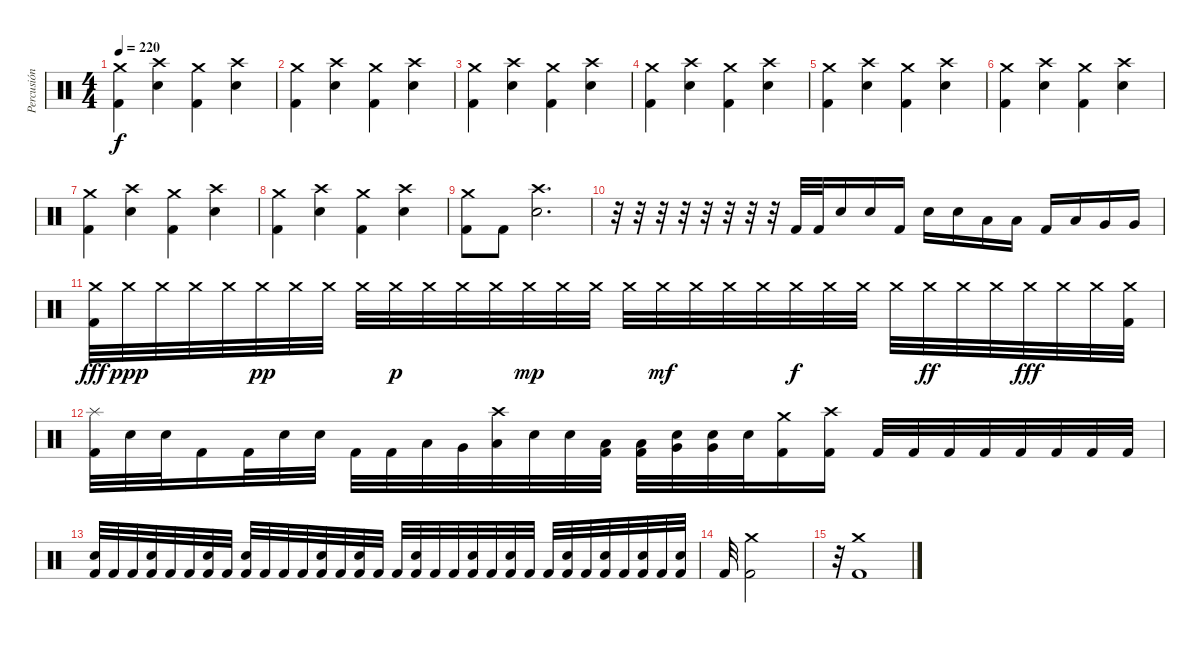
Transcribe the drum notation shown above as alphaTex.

\track ("Percusión" "Percusión") {instrument percussion}
\staff {score}
\articulation defaults
\ts (4 4)
\tempo 220
\clef neutral
\ks c
("Crash medium (hit)" "Kick (hit) 2").4{dy f} ("Crash high (hit)" "Snare (hit) 2").4 ("Crash medium (hit)" "Kick (hit) 2").4 ("Crash high (hit)" "Snare (hit) 2").4 |
("Crash medium (hit)" "Kick (hit) 2").4 ("Crash high (hit)" "Snare (hit) 2").4 ("Crash medium (hit)" "Kick (hit) 2").4 ("Crash high (hit)" "Snare (hit) 2").4 |
("Crash medium (hit)" "Kick (hit) 2").4 ("Crash high (hit)" "Snare (hit) 2").4 ("Crash medium (hit)" "Kick (hit) 2").4 ("Crash high (hit)" "Snare (hit) 2").4 |
("Crash medium (hit)" "Kick (hit) 2").4 ("Crash high (hit)" "Snare (hit) 2").4 ("Crash medium (hit)" "Kick (hit) 2").4 ("Crash high (hit)" "Snare (hit) 2").4 |
("Crash medium (hit)" "Kick (hit) 2").4 ("Crash high (hit)" "Snare (hit) 2").4 ("Crash medium (hit)" "Kick (hit) 2").4 ("Crash high (hit)" "Snare (hit) 2").4 |
("Crash medium (hit)" "Kick (hit) 2").4 ("Crash high (hit)" "Snare (hit) 2").4 ("Crash medium (hit)" "Kick (hit) 2").4 ("Crash high (hit)" "Snare (hit) 2").4 |
("Crash medium (hit)" "Kick (hit) 2").4 ("Crash high (hit)" "Snare (hit) 2").4 ("Crash medium (hit)" "Kick (hit) 2").4 ("Crash high (hit)" "Snare (hit) 2").4 |
("Crash medium (hit)" "Kick (hit) 2").4 ("Crash high (hit)" "Snare (hit) 2").4 ("Crash medium (hit)" "Kick (hit) 2").4 ("Crash high (hit)" "Snare (hit) 2").4 |
("Crash medium (hit)" "Kick (hit) 2").8 "Kick (hit) 2".8 ("Crash high (hit)" "Snare (hit) 2").2{d} |
r.32 r.32 r.32 r.32 r.32 r.32 r.32 r.32 "Kick (hit) 2".32 "Kick (hit) 2".32 "Snare (hit) 2".16 "Snare (hit) 2".16 "Kick (hit) 2".16 "Snare (hit) 2".16 "Snare (hit) 2".16 "Low Tom (hit)".16 "Low Tom (hit)".16 "Kick (hit) 2".16 "Low Tom (hit)".16 "Very Low Tom (hit)".16 "Very Low Tom (hit)".16 |
("Crash medium (hit)" "Kick (hit) 2").32{dy fff} "Crash medium (hit)".32{dy ppp} "Crash medium (hit)".32 "Crash medium (hit)".32 "Crash medium (hit)".32 "Crash medium (hit)".32{dy pp} "Crash medium (hit)".32 "Crash medium (hit)".32 "Crash medium (hit)".32 "Crash medium (hit)".32{dy p} "Crash medium (hit)".32 "Crash medium (hit)".32 "Crash medium (hit)".32 "Crash medium (hit)".32{dy mp} "Crash medium (hit)".32 "Crash medium (hit)".32 "Crash medium (hit)".32 "Crash medium (hit)".32{dy mf} "Crash medium (hit)".32 "Crash medium (hit)".32 "Crash medium (hit)".32 "Crash medium (hit)".32{dy f} "Crash medium (hit)".32 "Crash medium (hit)".32 "Crash medium (hit)".32 "Crash medium (hit)".32{dy ff} "Crash medium (hit)".32 "Crash medium (hit)".32 "Crash medium (hit)".32{dy fff} "Crash medium (hit)".32 "Crash medium (hit)".32 ("Crash medium (hit)" "Kick (hit) 2").32 |
("Splash (hit)" "Kick (hit) 2").32 "Snare (hit) 2".32 "Snare (hit) 2".32 "Kick (hit) 2".16 "Kick (hit) 2".32 "Snare (hit) 2".32 "Snare (hit) 2".32 "Kick (hit) 2".32 "Kick (hit) 2".32 "Low Tom (hit)".32 "Very Low Tom (hit)".32 ("Crash high (hit)" "Low Floor Tom (hit)").32 "Snare (hit) 2".32 "Snare (hit) 2".32 ("Low Floor Tom (hit)" "Kick (hit) 2").32 ("Low Floor Tom (hit)" "Kick (hit) 2").32 ("Very Low Tom (hit)" "Snare (hit) 2").32 ("Very Low Tom (hit)" "Snare (hit) 2").32 "Snare (hit) 2".32 ("Crash medium (hit)" "Kick (hit) 2").16 ("Crash high (hit)" "Kick (hit) 2").16 "Kick (hit) 2".32 "Kick (hit) 2".32 "Kick (hit) 2".32 "Kick (hit) 2".32 "Kick (hit) 2".32 "Kick (hit) 2".32 "Kick (hit) 2".32 "Kick (hit) 2".32 |
("Snare (hit) 2" "Kick (hit) 2").32 "Kick (hit) 2".32 "Kick (hit) 2".32 ("Snare (hit) 2" "Kick (hit) 2").32 "Kick (hit) 2".32 "Kick (hit) 2".32 ("Snare (hit) 2" "Kick (hit) 2").32 "Kick (hit) 2".32 ("Snare (hit) 2" "Kick (hit) 2").32 "Kick (hit) 2".32 "Kick (hit) 2".32 "Kick (hit) 2".32 ("Snare (hit) 2" "Kick (hit) 2").32 "Kick (hit) 2".32 ("Snare (hit) 2" "Kick (hit) 2").32 "Kick (hit) 2".32 "Kick (hit) 2".32 ("Snare (hit) 2" "Kick (hit) 2").32 "Kick (hit) 2".32 "Kick (hit) 2".32 ("Snare (hit) 2" "Kick (hit) 2").32 "Kick (hit) 2".32 ("Snare (hit) 2" "Kick (hit) 2").32 "Kick (hit) 2".32 "Kick (hit) 2".32 ("Snare (hit) 2" "Kick (hit) 2").32 "Kick (hit) 2".32 ("Snare (hit) 2" "Kick (hit) 2").32 "Kick (hit) 2".32 ("Snare (hit) 2" "Kick (hit) 2").32 "Kick (hit) 2".32 ("Snare (hit) 2" "Kick (hit) 2").32 |
"Kick (hit) 2".32 ("Crash medium (hit)" "Kick (hit) 2").2 |
r.32 ("Crash medium (hit)" "Kick (hit) 2").1
